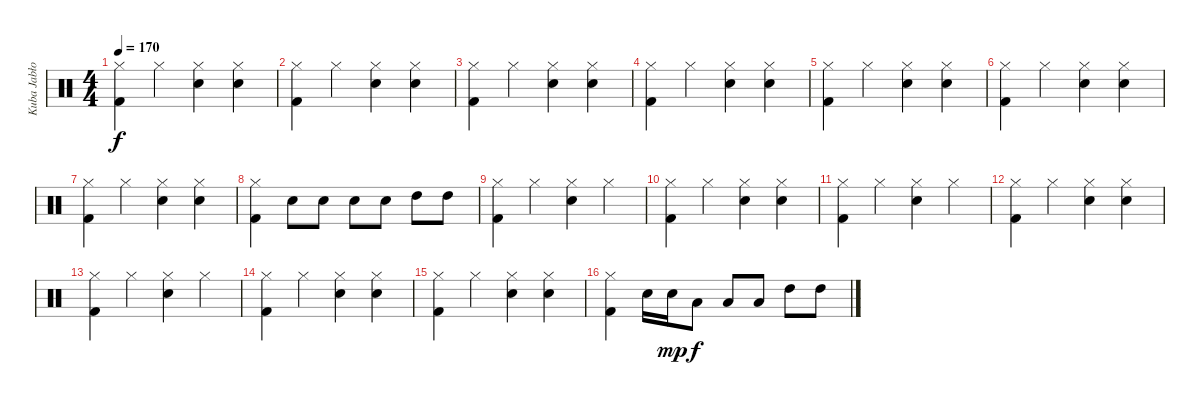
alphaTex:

\track ("Kuba Jabłoński" "Kuba Jabło") {instrument percussion}
\staff {score}
\articulation defaults
\ts (4 4)
\tempo 170
\clef neutral
\ks c
("Kick (hit) 2" "Hi-Hat (closed)").4{dy f} "Hi-Hat (closed)".4 ("Snare (hit) 2" "Hi-Hat (closed)").4 ("Snare (hit) 2" "Hi-Hat (closed)").4 |
("Kick (hit) 2" "Hi-Hat (closed)").4 "Hi-Hat (closed)".4 ("Snare (hit) 2" "Hi-Hat (closed)").4 ("Snare (hit) 2" "Hi-Hat (closed)").4 |
("Kick (hit) 2" "Hi-Hat (closed)").4 "Hi-Hat (closed)".4 ("Snare (hit) 2" "Hi-Hat (closed)").4 ("Snare (hit) 2" "Hi-Hat (closed)").4 |
("Kick (hit) 2" "Hi-Hat (closed)").4 "Hi-Hat (closed)".4 ("Snare (hit) 2" "Hi-Hat (closed)").4 ("Snare (hit) 2" "Hi-Hat (closed)").4 |
("Kick (hit) 2" "Hi-Hat (closed)").4 "Hi-Hat (closed)".4 ("Snare (hit) 2" "Hi-Hat (closed)").4 ("Snare (hit) 2" "Hi-Hat (closed)").4 |
("Kick (hit) 2" "Hi-Hat (closed)").4 "Hi-Hat (closed)".4 ("Snare (hit) 2" "Hi-Hat (closed)").4 ("Snare (hit) 2" "Hi-Hat (closed)").4 |
("Kick (hit) 2" "Hi-Hat (closed)").4 "Hi-Hat (closed)".4 ("Snare (hit) 2" "Hi-Hat (closed)").4 ("Snare (hit) 2" "Hi-Hat (closed)").4 |
("Kick (hit) 2" "Hi-Hat (closed)").4 "Snare (hit) 2".8 "Snare (hit) 2".8 "Snare (hit) 2".8 "Snare (hit) 2".8 "High Tom (hit)".8 "High Tom (hit)".8 |
("Kick (hit) 2" "Hi-Hat (closed)").4 "Hi-Hat (closed)".4 ("Snare (hit) 2" "Hi-Hat (closed)").4 "Hi-Hat (closed)".4 |
("Kick (hit) 2" "Hi-Hat (closed)").4 "Hi-Hat (closed)".4 ("Snare (hit) 2" "Hi-Hat (closed)").4 ("Snare (hit) 2" "Hi-Hat (closed)").4 |
("Kick (hit) 2" "Hi-Hat (closed)").4 "Hi-Hat (closed)".4 ("Snare (hit) 2" "Hi-Hat (closed)").4 "Hi-Hat (closed)".4 |
("Kick (hit) 2" "Hi-Hat (closed)").4 "Hi-Hat (closed)".4 ("Snare (hit) 2" "Hi-Hat (closed)").4 ("Snare (hit) 2" "Hi-Hat (closed)").4 |
("Kick (hit) 2" "Hi-Hat (closed)").4 "Hi-Hat (closed)".4 ("Snare (hit) 2" "Hi-Hat (closed)").4 "Hi-Hat (closed)".4 |
("Kick (hit) 2" "Hi-Hat (closed)").4 "Hi-Hat (closed)".4 ("Snare (hit) 2" "Hi-Hat (closed)").4 ("Snare (hit) 2" "Hi-Hat (closed)").4 |
("Kick (hit) 2" "Hi-Hat (closed)").4 "Hi-Hat (closed)".4 ("Snare (hit) 2" "Hi-Hat (closed)").4 ("Snare (hit) 2" "Hi-Hat (closed)").4 |
("Kick (hit) 2" "Hi-Hat (closed)").4 "Snare (hit) 2".16 "Snare (hit) 2".16{dy mp} "Low Tom (hit)".8{dy f} "Low Tom (hit)".8 "Low Tom (hit)".8 "High Tom (hit)".8 "High Tom (hit)".8
